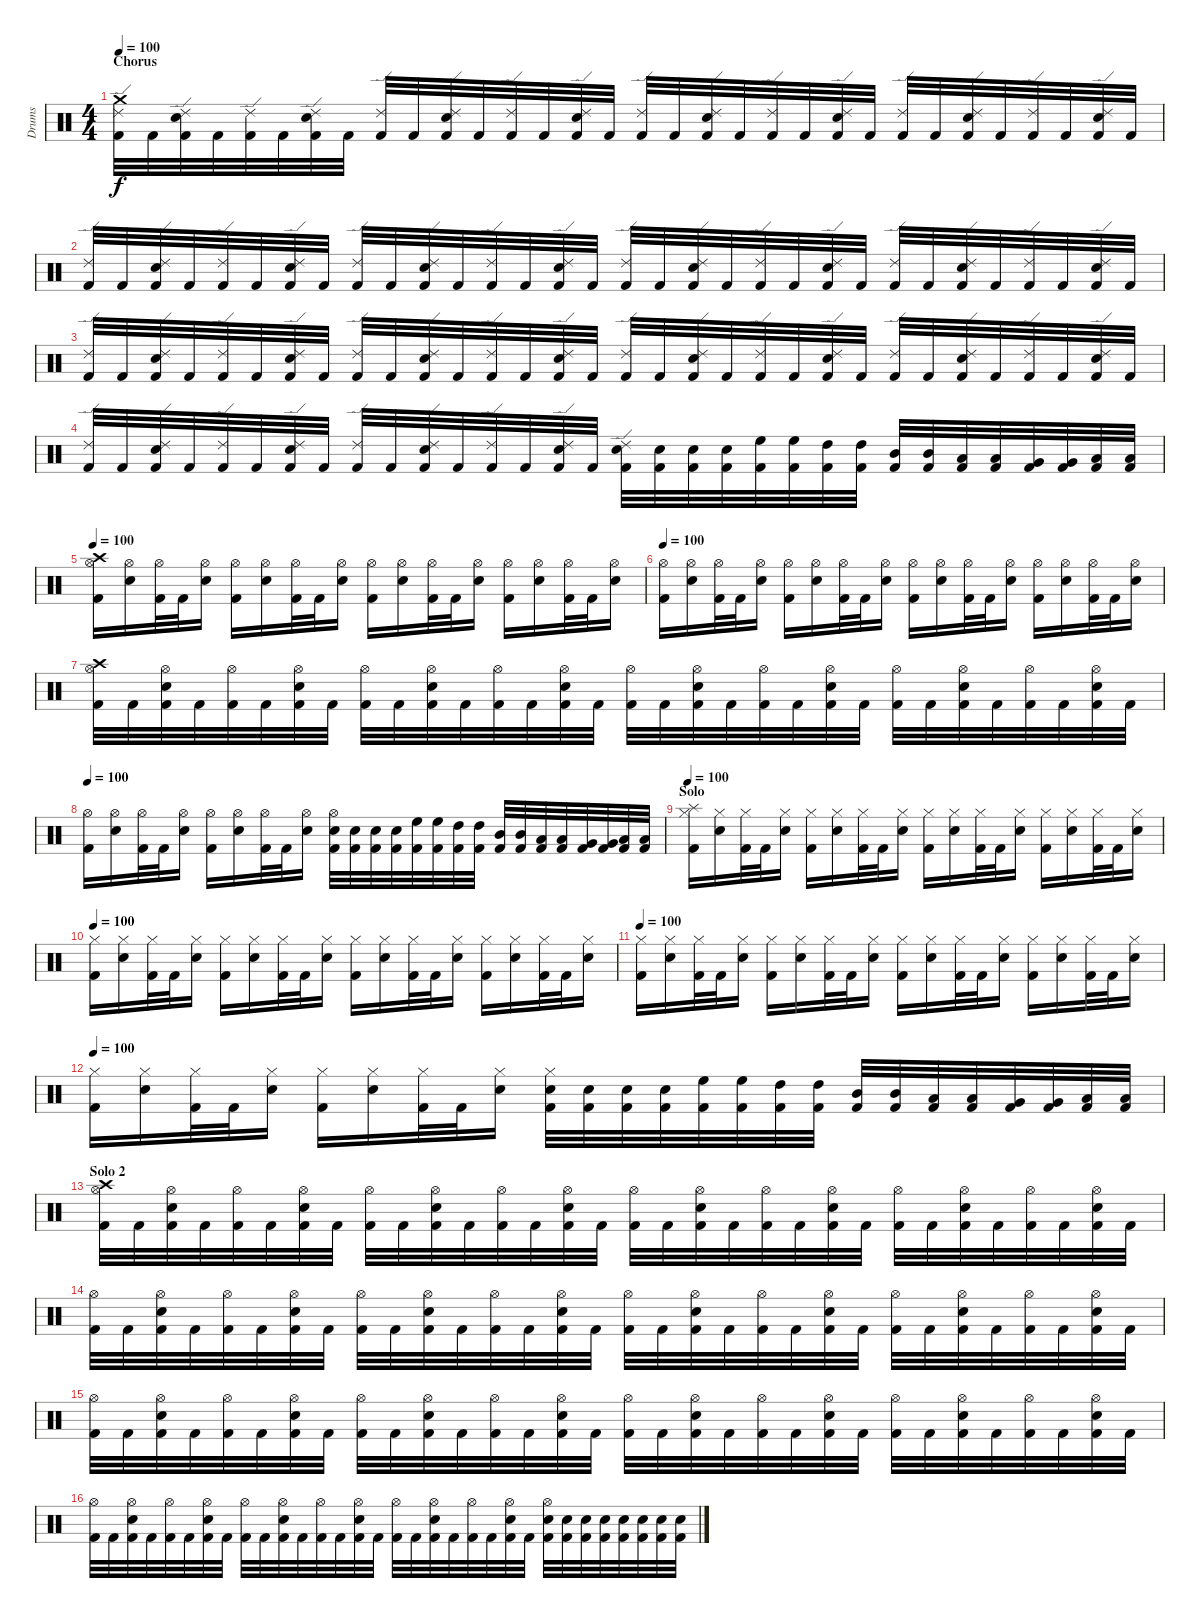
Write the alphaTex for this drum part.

\track ("Drums" "Drums") {instrument percussion}
\staff {score}
\articulation defaults
\ts (4 4)
\section ("" "Chorus")
\tempo 100
\clef neutral
\ks c
("Kick (hit) 2" "Ride (edge) 2" "Crash medium (hit)").32{dy f} "Kick (hit) 2".32 ("Kick (hit) 2" "Snare (hit) 2" "Ride (edge) 2").32 "Kick (hit) 2".32 ("Kick (hit) 2" "Ride (edge) 2").32 "Kick (hit) 2".32 ("Kick (hit) 2" "Snare (hit) 2" "Ride (edge) 2").32 "Kick (hit) 2".32 ("Kick (hit) 2" "Ride (edge) 2").32 "Kick (hit) 2".32 ("Kick (hit) 2" "Snare (hit) 2" "Ride (edge) 2").32 "Kick (hit) 2".32 ("Kick (hit) 2" "Ride (edge) 2").32 "Kick (hit) 2".32 ("Kick (hit) 2" "Snare (hit) 2" "Ride (edge) 2").32 "Kick (hit) 2".32 ("Kick (hit) 2" "Ride (edge) 2").32 "Kick (hit) 2".32 ("Kick (hit) 2" "Snare (hit) 2" "Ride (edge) 2").32 "Kick (hit) 2".32 ("Kick (hit) 2" "Ride (edge) 2").32 "Kick (hit) 2".32 ("Kick (hit) 2" "Snare (hit) 2" "Ride (edge) 2").32 "Kick (hit) 2".32 ("Kick (hit) 2" "Ride (edge) 2").32 "Kick (hit) 2".32 ("Kick (hit) 2" "Snare (hit) 2" "Ride (edge) 2").32 "Kick (hit) 2".32 ("Kick (hit) 2" "Ride (edge) 2").32 "Kick (hit) 2".32 ("Kick (hit) 2" "Snare (hit) 2" "Ride (edge) 2").32 "Kick (hit) 2".32 |
("Kick (hit) 2" "Ride (edge) 2").32 "Kick (hit) 2".32 ("Kick (hit) 2" "Snare (hit) 2" "Ride (edge) 2").32 "Kick (hit) 2".32 ("Kick (hit) 2" "Ride (edge) 2").32 "Kick (hit) 2".32 ("Kick (hit) 2" "Snare (hit) 2" "Ride (edge) 2").32 "Kick (hit) 2".32 ("Kick (hit) 2" "Ride (edge) 2").32 "Kick (hit) 2".32 ("Kick (hit) 2" "Snare (hit) 2" "Ride (edge) 2").32 "Kick (hit) 2".32 ("Kick (hit) 2" "Ride (edge) 2").32 "Kick (hit) 2".32 ("Kick (hit) 2" "Snare (hit) 2" "Ride (edge) 2").32 "Kick (hit) 2".32 ("Kick (hit) 2" "Ride (edge) 2").32 "Kick (hit) 2".32 ("Kick (hit) 2" "Snare (hit) 2" "Ride (edge) 2").32 "Kick (hit) 2".32 ("Kick (hit) 2" "Ride (edge) 2").32 "Kick (hit) 2".32 ("Kick (hit) 2" "Snare (hit) 2" "Ride (edge) 2").32 "Kick (hit) 2".32 ("Kick (hit) 2" "Ride (edge) 2").32 "Kick (hit) 2".32 ("Kick (hit) 2" "Snare (hit) 2" "Ride (edge) 2").32 "Kick (hit) 2".32 ("Kick (hit) 2" "Ride (edge) 2").32 "Kick (hit) 2".32 ("Kick (hit) 2" "Snare (hit) 2" "Ride (edge) 2").32 "Kick (hit) 2".32 |
("Kick (hit) 2" "Ride (edge) 2").32 "Kick (hit) 2".32 ("Kick (hit) 2" "Snare (hit) 2" "Ride (edge) 2").32 "Kick (hit) 2".32 ("Kick (hit) 2" "Ride (edge) 2").32 "Kick (hit) 2".32 ("Kick (hit) 2" "Snare (hit) 2" "Ride (edge) 2").32 "Kick (hit) 2".32 ("Kick (hit) 2" "Ride (edge) 2").32 "Kick (hit) 2".32 ("Kick (hit) 2" "Snare (hit) 2" "Ride (edge) 2").32 "Kick (hit) 2".32 ("Kick (hit) 2" "Ride (edge) 2").32 "Kick (hit) 2".32 ("Kick (hit) 2" "Snare (hit) 2" "Ride (edge) 2").32 "Kick (hit) 2".32 ("Kick (hit) 2" "Ride (edge) 2").32 "Kick (hit) 2".32 ("Kick (hit) 2" "Snare (hit) 2" "Ride (edge) 2").32 "Kick (hit) 2".32 ("Kick (hit) 2" "Ride (edge) 2").32 "Kick (hit) 2".32 ("Kick (hit) 2" "Snare (hit) 2" "Ride (edge) 2").32 "Kick (hit) 2".32 ("Kick (hit) 2" "Ride (edge) 2").32 "Kick (hit) 2".32 ("Kick (hit) 2" "Snare (hit) 2" "Ride (edge) 2").32 "Kick (hit) 2".32 ("Kick (hit) 2" "Ride (edge) 2").32 "Kick (hit) 2".32 ("Kick (hit) 2" "Snare (hit) 2" "Ride (edge) 2").32 "Kick (hit) 2".32 |
("Kick (hit) 2" "Ride (edge) 2").32 "Kick (hit) 2".32 ("Kick (hit) 2" "Snare (hit) 2" "Ride (edge) 2").32 "Kick (hit) 2".32 ("Kick (hit) 2" "Ride (edge) 2").32 "Kick (hit) 2".32 ("Kick (hit) 2" "Snare (hit) 2" "Ride (edge) 2").32 "Kick (hit) 2".32 ("Kick (hit) 2" "Ride (edge) 2").32 "Kick (hit) 2".32 ("Kick (hit) 2" "Snare (hit) 2" "Ride (edge) 2").32 "Kick (hit) 2".32 ("Kick (hit) 2" "Ride (edge) 2").32 "Kick (hit) 2".32 ("Kick (hit) 2" "Snare (hit) 2" "Ride (edge) 2").32 "Kick (hit) 2".32 ("Kick (hit) 2" "Snare (hit) 2" "Ride (edge) 2").32 ("Kick (hit) 2" "Snare (hit) 2").32 ("Kick (hit) 2" "Snare (hit) 2").32 ("Kick (hit) 2" "Snare (hit) 2").32 ("Kick (hit) 2" "High Floor Tom (hit)").32 ("Kick (hit) 2" "High Floor Tom (hit)").32 ("Kick (hit) 2" "High Tom (hit)").32 ("Kick (hit) 2" "High Tom (hit)").32 ("Kick (hit) 2" "Mid Tom (hit)").32 ("Kick (hit) 2" "Mid Tom (hit)").32 ("Kick (hit) 2" "Low Tom (hit)").32 ("Kick (hit) 2" "Low Tom (hit)").32 ("Kick (hit) 2" "Very Low Tom (hit)").32 ("Kick (hit) 2" "Very Low Tom (hit)").32 ("Kick (hit) 2" "Low Floor Tom (hit)").32 ("Kick (hit) 2" "Low Floor Tom (hit)").32 |
\section ("" "")
\tempo 100
("Kick (hit) 2" "Hi-Hat (open)" "Crash high (hit)").16 ("Snare (hit) 2" "Hi-Hat (open)").16 ("Kick (hit) 2" "Hi-Hat (open)").32 "Kick (hit) 2".32 ("Snare (hit) 2" "Hi-Hat (open)").16 ("Kick (hit) 2" "Hi-Hat (open)").16 ("Snare (hit) 2" "Hi-Hat (open)").16 ("Kick (hit) 2" "Hi-Hat (open)").32 "Kick (hit) 2".32 ("Snare (hit) 2" "Hi-Hat (open)").16 ("Kick (hit) 2" "Hi-Hat (open)").16 ("Snare (hit) 2" "Hi-Hat (open)").16 ("Kick (hit) 2" "Hi-Hat (open)").32 "Kick (hit) 2".32 ("Snare (hit) 2" "Hi-Hat (open)").16 ("Kick (hit) 2" "Hi-Hat (open)").16 ("Snare (hit) 2" "Hi-Hat (open)").16 ("Kick (hit) 2" "Hi-Hat (open)").32 "Kick (hit) 2".32 ("Snare (hit) 2" "Hi-Hat (open)").16 |
\tempo 100
("Kick (hit) 2" "Hi-Hat (open)").16 ("Snare (hit) 2" "Hi-Hat (open)").16 ("Kick (hit) 2" "Hi-Hat (open)").32 "Kick (hit) 2".32 ("Snare (hit) 2" "Hi-Hat (open)").16 ("Kick (hit) 2" "Hi-Hat (open)").16 ("Snare (hit) 2" "Hi-Hat (open)").16 ("Kick (hit) 2" "Hi-Hat (open)").32 "Kick (hit) 2".32 ("Snare (hit) 2" "Hi-Hat (open)").16 ("Kick (hit) 2" "Hi-Hat (open)").16 ("Snare (hit) 2" "Hi-Hat (open)").16 ("Kick (hit) 2" "Hi-Hat (open)").32 "Kick (hit) 2".32 ("Snare (hit) 2" "Hi-Hat (open)").16 ("Kick (hit) 2" "Hi-Hat (open)").16 ("Snare (hit) 2" "Hi-Hat (open)").16 ("Kick (hit) 2" "Hi-Hat (open)").32 "Kick (hit) 2".32 ("Snare (hit) 2" "Hi-Hat (open)").16 |
("Kick (hit) 2" "Hi-Hat (open)" "Crash high (hit)").32 "Kick (hit) 2".32 ("Kick (hit) 2" "Snare (hit) 2" "Hi-Hat (open)").32 "Kick (hit) 2".32 ("Kick (hit) 2" "Hi-Hat (open)").32 "Kick (hit) 2".32 ("Kick (hit) 2" "Snare (hit) 2" "Hi-Hat (open)").32 "Kick (hit) 2".32 ("Kick (hit) 2" "Hi-Hat (open)").32 "Kick (hit) 2".32 ("Kick (hit) 2" "Snare (hit) 2" "Hi-Hat (open)").32 "Kick (hit) 2".32 ("Kick (hit) 2" "Hi-Hat (open)").32 "Kick (hit) 2".32 ("Kick (hit) 2" "Snare (hit) 2" "Hi-Hat (open)").32 "Kick (hit) 2".32 ("Kick (hit) 2" "Hi-Hat (open)").32 "Kick (hit) 2".32 ("Kick (hit) 2" "Snare (hit) 2" "Hi-Hat (open)").32 "Kick (hit) 2".32 ("Kick (hit) 2" "Hi-Hat (open)").32 "Kick (hit) 2".32 ("Kick (hit) 2" "Snare (hit) 2" "Hi-Hat (open)").32 "Kick (hit) 2".32 ("Kick (hit) 2" "Hi-Hat (open)").32 "Kick (hit) 2".32 ("Kick (hit) 2" "Snare (hit) 2" "Hi-Hat (open)").32 "Kick (hit) 2".32 ("Kick (hit) 2" "Hi-Hat (open)").32 "Kick (hit) 2".32 ("Kick (hit) 2" "Snare (hit) 2" "Hi-Hat (open)").32 "Kick (hit) 2".32 |
\tempo 100
("Kick (hit) 2" "Hi-Hat (open)").16 ("Snare (hit) 2" "Hi-Hat (open)").16 ("Kick (hit) 2" "Hi-Hat (open)").32 "Kick (hit) 2".32 ("Snare (hit) 2" "Hi-Hat (open)").16 ("Kick (hit) 2" "Hi-Hat (open)").16 ("Snare (hit) 2" "Hi-Hat (open)").16 ("Kick (hit) 2" "Hi-Hat (open)").32 "Kick (hit) 2".32 ("Snare (hit) 2" "Hi-Hat (open)").16 ("Kick (hit) 2" "Snare (hit) 2" "Hi-Hat (open)").32 ("Kick (hit) 2" "Snare (hit) 2").32 ("Kick (hit) 2" "Snare (hit) 2").32 ("Kick (hit) 2" "Snare (hit) 2").32 ("Kick (hit) 2" "High Floor Tom (hit)").32 ("Kick (hit) 2" "High Floor Tom (hit)").32 ("Kick (hit) 2" "High Tom (hit)").32 ("Kick (hit) 2" "High Tom (hit)").32 ("Kick (hit) 2" "Mid Tom (hit)").32 ("Kick (hit) 2" "Mid Tom (hit)").32 ("Kick (hit) 2" "Low Tom (hit)").32 ("Kick (hit) 2" "Low Tom (hit)").32 ("Kick (hit) 2" "Very Low Tom (hit)").32 ("Kick (hit) 2" "Very Low Tom (hit)").32 ("Kick (hit) 2" "Low Floor Tom (hit)").32 ("Kick (hit) 2" "Low Floor Tom (hit)").32 |
\section ("" "Solo")
\tempo 100
("Kick (hit) 2" "Hi-Hat (closed)" "Splash (hit)").16 ("Snare (hit) 2" "Hi-Hat (closed)").16 ("Kick (hit) 2" "Hi-Hat (closed)").32 "Kick (hit) 2".32 ("Snare (hit) 2" "Hi-Hat (closed)").16 ("Kick (hit) 2" "Hi-Hat (closed)").16 ("Snare (hit) 2" "Hi-Hat (closed)").16 ("Kick (hit) 2" "Hi-Hat (closed)").32 "Kick (hit) 2".32 ("Snare (hit) 2" "Hi-Hat (closed)").16 ("Kick (hit) 2" "Hi-Hat (closed)").16 ("Snare (hit) 2" "Hi-Hat (closed)").16 ("Kick (hit) 2" "Hi-Hat (closed)").32 "Kick (hit) 2".32 ("Snare (hit) 2" "Hi-Hat (closed)").16 ("Kick (hit) 2" "Hi-Hat (closed)").16 ("Snare (hit) 2" "Hi-Hat (closed)").16 ("Kick (hit) 2" "Hi-Hat (closed)").32 "Kick (hit) 2".32 ("Snare (hit) 2" "Hi-Hat (closed)").16 |
\tempo 100
("Kick (hit) 2" "Hi-Hat (closed)").16 ("Snare (hit) 2" "Hi-Hat (closed)").16 ("Kick (hit) 2" "Hi-Hat (closed)").32 "Kick (hit) 2".32 ("Snare (hit) 2" "Hi-Hat (closed)").16 ("Kick (hit) 2" "Hi-Hat (closed)").16 ("Snare (hit) 2" "Hi-Hat (closed)").16 ("Kick (hit) 2" "Hi-Hat (closed)").32 "Kick (hit) 2".32 ("Snare (hit) 2" "Hi-Hat (closed)").16 ("Kick (hit) 2" "Hi-Hat (closed)").16 ("Snare (hit) 2" "Hi-Hat (closed)").16 ("Kick (hit) 2" "Hi-Hat (closed)").32 "Kick (hit) 2".32 ("Snare (hit) 2" "Hi-Hat (closed)").16 ("Kick (hit) 2" "Hi-Hat (closed)").16 ("Snare (hit) 2" "Hi-Hat (closed)").16 ("Kick (hit) 2" "Hi-Hat (closed)").32 "Kick (hit) 2".32 ("Snare (hit) 2" "Hi-Hat (closed)").16 |
\tempo 100
("Kick (hit) 2" "Hi-Hat (closed)").16 ("Snare (hit) 2" "Hi-Hat (closed)").16 ("Kick (hit) 2" "Hi-Hat (closed)").32 "Kick (hit) 2".32 ("Snare (hit) 2" "Hi-Hat (closed)").16 ("Kick (hit) 2" "Hi-Hat (closed)").16 ("Snare (hit) 2" "Hi-Hat (closed)").16 ("Kick (hit) 2" "Hi-Hat (closed)").32 "Kick (hit) 2".32 ("Snare (hit) 2" "Hi-Hat (closed)").16 ("Kick (hit) 2" "Hi-Hat (closed)").16 ("Snare (hit) 2" "Hi-Hat (closed)").16 ("Kick (hit) 2" "Hi-Hat (closed)").32 "Kick (hit) 2".32 ("Snare (hit) 2" "Hi-Hat (closed)").16 ("Kick (hit) 2" "Hi-Hat (closed)").16 ("Snare (hit) 2" "Hi-Hat (closed)").16 ("Kick (hit) 2" "Hi-Hat (closed)").32 "Kick (hit) 2".32 ("Snare (hit) 2" "Hi-Hat (closed)").16 |
\tempo 100
("Kick (hit) 2" "Hi-Hat (closed)").16 ("Snare (hit) 2" "Hi-Hat (closed)").16 ("Kick (hit) 2" "Hi-Hat (closed)").32 "Kick (hit) 2".32 ("Snare (hit) 2" "Hi-Hat (closed)").16 ("Kick (hit) 2" "Hi-Hat (closed)").16 ("Snare (hit) 2" "Hi-Hat (closed)").16 ("Kick (hit) 2" "Hi-Hat (closed)").32 "Kick (hit) 2".32 ("Snare (hit) 2" "Hi-Hat (closed)").16 ("Kick (hit) 2" "Snare (hit) 2" "Hi-Hat (closed)").32 ("Kick (hit) 2" "Snare (hit) 2").32 ("Kick (hit) 2" "Snare (hit) 2").32 ("Kick (hit) 2" "Snare (hit) 2").32 ("Kick (hit) 2" "High Floor Tom (hit)").32 ("Kick (hit) 2" "High Floor Tom (hit)").32 ("Kick (hit) 2" "High Tom (hit)").32 ("Kick (hit) 2" "High Tom (hit)").32 ("Kick (hit) 2" "Mid Tom (hit)").32 ("Kick (hit) 2" "Mid Tom (hit)").32 ("Kick (hit) 2" "Low Tom (hit)").32 ("Kick (hit) 2" "Low Tom (hit)").32 ("Kick (hit) 2" "Very Low Tom (hit)").32 ("Kick (hit) 2" "Very Low Tom (hit)").32 ("Kick (hit) 2" "Low Floor Tom (hit)").32 ("Kick (hit) 2" "Low Floor Tom (hit)").32 |
\section ("" "Solo 2")
("Kick (hit) 2" "Hi-Hat (open)" "Crash high (hit)").32 "Kick (hit) 2".32 ("Kick (hit) 2" "Snare (hit) 2" "Hi-Hat (open)").32 "Kick (hit) 2".32 ("Kick (hit) 2" "Hi-Hat (open)").32 "Kick (hit) 2".32 ("Kick (hit) 2" "Snare (hit) 2" "Hi-Hat (open)").32 "Kick (hit) 2".32 ("Kick (hit) 2" "Hi-Hat (open)").32 "Kick (hit) 2".32 ("Kick (hit) 2" "Snare (hit) 2" "Hi-Hat (open)").32 "Kick (hit) 2".32 ("Kick (hit) 2" "Hi-Hat (open)").32 "Kick (hit) 2".32 ("Kick (hit) 2" "Snare (hit) 2" "Hi-Hat (open)").32 "Kick (hit) 2".32 ("Kick (hit) 2" "Hi-Hat (open)").32 "Kick (hit) 2".32 ("Kick (hit) 2" "Snare (hit) 2" "Hi-Hat (open)").32 "Kick (hit) 2".32 ("Kick (hit) 2" "Hi-Hat (open)").32 "Kick (hit) 2".32 ("Kick (hit) 2" "Snare (hit) 2" "Hi-Hat (open)").32 "Kick (hit) 2".32 ("Kick (hit) 2" "Hi-Hat (open)").32 "Kick (hit) 2".32 ("Kick (hit) 2" "Snare (hit) 2" "Hi-Hat (open)").32 "Kick (hit) 2".32 ("Kick (hit) 2" "Hi-Hat (open)").32 "Kick (hit) 2".32 ("Kick (hit) 2" "Snare (hit) 2" "Hi-Hat (open)").32 "Kick (hit) 2".32 |
("Kick (hit) 2" "Hi-Hat (open)").32 "Kick (hit) 2".32 ("Kick (hit) 2" "Snare (hit) 2" "Hi-Hat (open)").32 "Kick (hit) 2".32 ("Kick (hit) 2" "Hi-Hat (open)").32 "Kick (hit) 2".32 ("Kick (hit) 2" "Snare (hit) 2" "Hi-Hat (open)").32 "Kick (hit) 2".32 ("Kick (hit) 2" "Hi-Hat (open)").32 "Kick (hit) 2".32 ("Kick (hit) 2" "Snare (hit) 2" "Hi-Hat (open)").32 "Kick (hit) 2".32 ("Kick (hit) 2" "Hi-Hat (open)").32 "Kick (hit) 2".32 ("Kick (hit) 2" "Snare (hit) 2" "Hi-Hat (open)").32 "Kick (hit) 2".32 ("Kick (hit) 2" "Hi-Hat (open)").32 "Kick (hit) 2".32 ("Kick (hit) 2" "Snare (hit) 2" "Hi-Hat (open)").32 "Kick (hit) 2".32 ("Kick (hit) 2" "Hi-Hat (open)").32 "Kick (hit) 2".32 ("Kick (hit) 2" "Snare (hit) 2" "Hi-Hat (open)").32 "Kick (hit) 2".32 ("Kick (hit) 2" "Hi-Hat (open)").32 "Kick (hit) 2".32 ("Kick (hit) 2" "Snare (hit) 2" "Hi-Hat (open)").32 "Kick (hit) 2".32 ("Kick (hit) 2" "Hi-Hat (open)").32 "Kick (hit) 2".32 ("Kick (hit) 2" "Snare (hit) 2" "Hi-Hat (open)").32 "Kick (hit) 2".32 |
("Kick (hit) 2" "Hi-Hat (open)").32 "Kick (hit) 2".32 ("Kick (hit) 2" "Snare (hit) 2" "Hi-Hat (open)").32 "Kick (hit) 2".32 ("Kick (hit) 2" "Hi-Hat (open)").32 "Kick (hit) 2".32 ("Kick (hit) 2" "Snare (hit) 2" "Hi-Hat (open)").32 "Kick (hit) 2".32 ("Kick (hit) 2" "Hi-Hat (open)").32 "Kick (hit) 2".32 ("Kick (hit) 2" "Snare (hit) 2" "Hi-Hat (open)").32 "Kick (hit) 2".32 ("Kick (hit) 2" "Hi-Hat (open)").32 "Kick (hit) 2".32 ("Kick (hit) 2" "Snare (hit) 2" "Hi-Hat (open)").32 "Kick (hit) 2".32 ("Kick (hit) 2" "Hi-Hat (open)").32 "Kick (hit) 2".32 ("Kick (hit) 2" "Snare (hit) 2" "Hi-Hat (open)").32 "Kick (hit) 2".32 ("Kick (hit) 2" "Hi-Hat (open)").32 "Kick (hit) 2".32 ("Kick (hit) 2" "Snare (hit) 2" "Hi-Hat (open)").32 "Kick (hit) 2".32 ("Kick (hit) 2" "Hi-Hat (open)").32 "Kick (hit) 2".32 ("Kick (hit) 2" "Snare (hit) 2" "Hi-Hat (open)").32 "Kick (hit) 2".32 ("Kick (hit) 2" "Hi-Hat (open)").32 "Kick (hit) 2".32 ("Kick (hit) 2" "Snare (hit) 2" "Hi-Hat (open)").32 "Kick (hit) 2".32 |
("Kick (hit) 2" "Hi-Hat (open)").32 "Kick (hit) 2".32 ("Kick (hit) 2" "Snare (hit) 2" "Hi-Hat (open)").32 "Kick (hit) 2".32 ("Kick (hit) 2" "Hi-Hat (open)").32 "Kick (hit) 2".32 ("Kick (hit) 2" "Snare (hit) 2" "Hi-Hat (open)").32 "Kick (hit) 2".32 ("Kick (hit) 2" "Hi-Hat (open)").32 "Kick (hit) 2".32 ("Kick (hit) 2" "Snare (hit) 2" "Hi-Hat (open)").32 "Kick (hit) 2".32 ("Kick (hit) 2" "Hi-Hat (open)").32 "Kick (hit) 2".32 ("Kick (hit) 2" "Snare (hit) 2" "Hi-Hat (open)").32 "Kick (hit) 2".32 ("Kick (hit) 2" "Hi-Hat (open)").32 "Kick (hit) 2".32 ("Kick (hit) 2" "Snare (hit) 2" "Hi-Hat (open)").32 "Kick (hit) 2".32 ("Kick (hit) 2" "Hi-Hat (open)").32 "Kick (hit) 2".32 ("Kick (hit) 2" "Snare (hit) 2" "Hi-Hat (open)").32 "Kick (hit) 2".32 ("Kick (hit) 2" "Snare (hit) 2" "Hi-Hat (open)").32 ("Kick (hit) 2" "Snare (hit) 2").32 ("Kick (hit) 2" "Snare (hit) 2").32 ("Kick (hit) 2" "Snare (hit) 2").32 ("Kick (hit) 2" "Snare (hit) 2").32 ("Kick (hit) 2" "Snare (hit) 2").32 ("Kick (hit) 2" "Snare (hit) 2").32 ("Kick (hit) 2" "Snare (hit) 2").32
